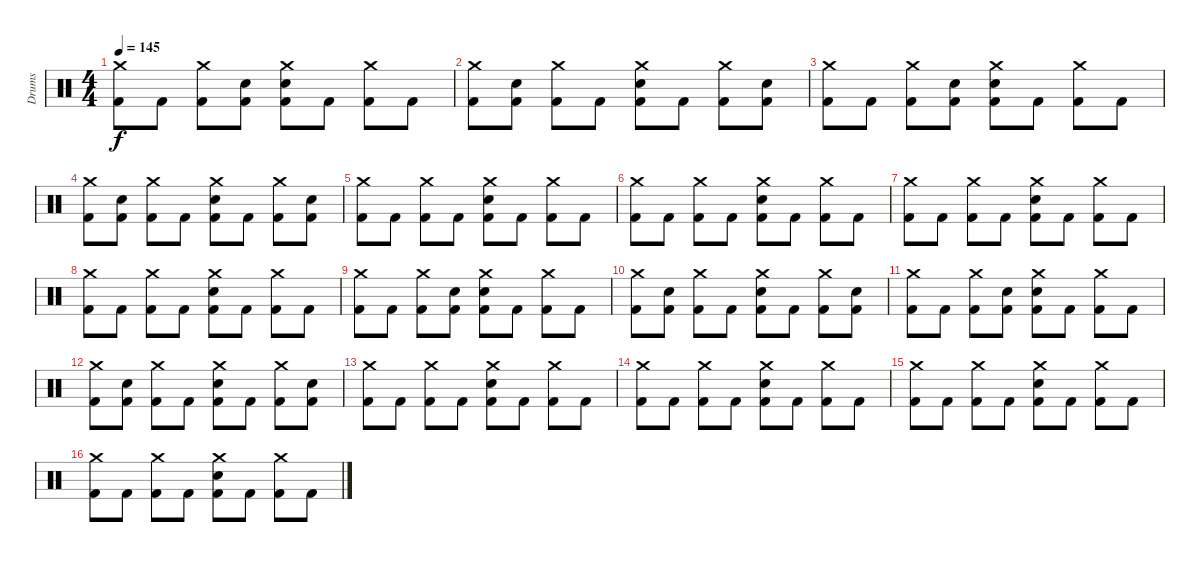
\track ("Drums" "Drums") {instrument percussion}
\staff {score}
\articulation defaults
\ts (4 4)
\tempo 145
\clef neutral
\ks c
("Crash medium (hit)" "Kick (hit) 2").8{dy f} "Kick (hit) 2".8 ("Crash medium (hit)" "Kick (hit) 2").8 ("Snare (hit) 2" "Kick (hit) 2").8 ("Crash medium (hit)" "Snare (hit) 2" "Kick (hit) 2").8 "Kick (hit) 2".8 ("Crash medium (hit)" "Kick (hit) 2").8 "Kick (hit) 2".8 |
("Crash medium (hit)" "Kick (hit) 2").8 ("Snare (hit) 2" "Kick (hit) 2").8 ("Crash medium (hit)" "Kick (hit) 2").8 "Kick (hit) 2".8 ("Crash medium (hit)" "Snare (hit) 2" "Kick (hit) 2").8 "Kick (hit) 2".8 ("Crash medium (hit)" "Kick (hit) 2").8 ("Snare (hit) 2" "Kick (hit) 2").8 |
("Crash medium (hit)" "Kick (hit) 2").8 "Kick (hit) 2".8 ("Crash medium (hit)" "Kick (hit) 2").8 ("Snare (hit) 2" "Kick (hit) 2").8 ("Crash medium (hit)" "Snare (hit) 2" "Kick (hit) 2").8 "Kick (hit) 2".8 ("Crash medium (hit)" "Kick (hit) 2").8 "Kick (hit) 2".8 |
("Crash medium (hit)" "Kick (hit) 2").8 ("Snare (hit) 2" "Kick (hit) 2").8 ("Crash medium (hit)" "Kick (hit) 2").8 "Kick (hit) 2".8 ("Crash medium (hit)" "Snare (hit) 2" "Kick (hit) 2").8 "Kick (hit) 2".8 ("Crash medium (hit)" "Kick (hit) 2").8 ("Snare (hit) 2" "Kick (hit) 2").8 |
("Crash medium (hit)" "Kick (hit) 2").8 "Kick (hit) 2".8 ("Crash medium (hit)" "Kick (hit) 2").8 "Kick (hit) 2".8 ("Crash medium (hit)" "Snare (hit) 2" "Kick (hit) 2").8 "Kick (hit) 2".8 ("Crash medium (hit)" "Kick (hit) 2").8 "Kick (hit) 2".8 |
("Crash medium (hit)" "Kick (hit) 2").8 "Kick (hit) 2".8 ("Crash medium (hit)" "Kick (hit) 2").8 "Kick (hit) 2".8 ("Crash medium (hit)" "Snare (hit) 2" "Kick (hit) 2").8 "Kick (hit) 2".8 ("Crash medium (hit)" "Kick (hit) 2").8 "Kick (hit) 2".8 |
("Crash medium (hit)" "Kick (hit) 2").8 "Kick (hit) 2".8 ("Crash medium (hit)" "Kick (hit) 2").8 "Kick (hit) 2".8 ("Crash medium (hit)" "Snare (hit) 2" "Kick (hit) 2").8 "Kick (hit) 2".8 ("Crash medium (hit)" "Kick (hit) 2").8 "Kick (hit) 2".8 |
("Crash medium (hit)" "Kick (hit) 2").8 "Kick (hit) 2".8 ("Crash medium (hit)" "Kick (hit) 2").8 "Kick (hit) 2".8 ("Crash medium (hit)" "Snare (hit) 2" "Kick (hit) 2").8 "Kick (hit) 2".8 ("Crash medium (hit)" "Kick (hit) 2").8 "Kick (hit) 2".8 |
("Crash medium (hit)" "Kick (hit) 2").8 "Kick (hit) 2".8 ("Crash medium (hit)" "Kick (hit) 2").8 ("Snare (hit) 2" "Kick (hit) 2").8 ("Crash medium (hit)" "Snare (hit) 2" "Kick (hit) 2").8 "Kick (hit) 2".8 ("Crash medium (hit)" "Kick (hit) 2").8 "Kick (hit) 2".8 |
("Crash medium (hit)" "Kick (hit) 2").8 ("Snare (hit) 2" "Kick (hit) 2").8 ("Crash medium (hit)" "Kick (hit) 2").8 "Kick (hit) 2".8 ("Crash medium (hit)" "Snare (hit) 2" "Kick (hit) 2").8 "Kick (hit) 2".8 ("Crash medium (hit)" "Kick (hit) 2").8 ("Snare (hit) 2" "Kick (hit) 2").8 |
("Crash medium (hit)" "Kick (hit) 2").8 "Kick (hit) 2".8 ("Crash medium (hit)" "Kick (hit) 2").8 ("Snare (hit) 2" "Kick (hit) 2").8 ("Crash medium (hit)" "Snare (hit) 2" "Kick (hit) 2").8 "Kick (hit) 2".8 ("Crash medium (hit)" "Kick (hit) 2").8 "Kick (hit) 2".8 |
("Crash medium (hit)" "Kick (hit) 2").8 ("Snare (hit) 2" "Kick (hit) 2").8 ("Crash medium (hit)" "Kick (hit) 2").8 "Kick (hit) 2".8 ("Crash medium (hit)" "Snare (hit) 2" "Kick (hit) 2").8 "Kick (hit) 2".8 ("Crash medium (hit)" "Kick (hit) 2").8 ("Snare (hit) 2" "Kick (hit) 2").8 |
("Crash medium (hit)" "Kick (hit) 2").8 "Kick (hit) 2".8 ("Crash medium (hit)" "Kick (hit) 2").8 "Kick (hit) 2".8 ("Crash medium (hit)" "Snare (hit) 2" "Kick (hit) 2").8 "Kick (hit) 2".8 ("Crash medium (hit)" "Kick (hit) 2").8 "Kick (hit) 2".8 |
("Crash medium (hit)" "Kick (hit) 2").8 "Kick (hit) 2".8 ("Crash medium (hit)" "Kick (hit) 2").8 "Kick (hit) 2".8 ("Crash medium (hit)" "Snare (hit) 2" "Kick (hit) 2").8 "Kick (hit) 2".8 ("Crash medium (hit)" "Kick (hit) 2").8 "Kick (hit) 2".8 |
("Crash medium (hit)" "Kick (hit) 2").8 "Kick (hit) 2".8 ("Crash medium (hit)" "Kick (hit) 2").8 "Kick (hit) 2".8 ("Crash medium (hit)" "Snare (hit) 2" "Kick (hit) 2").8 "Kick (hit) 2".8 ("Crash medium (hit)" "Kick (hit) 2").8 "Kick (hit) 2".8 |
("Crash medium (hit)" "Kick (hit) 2").8 "Kick (hit) 2".8 ("Crash medium (hit)" "Kick (hit) 2").8 "Kick (hit) 2".8 ("Crash medium (hit)" "Snare (hit) 2" "Kick (hit) 2").8 "Kick (hit) 2".8 ("Crash medium (hit)" "Kick (hit) 2").8 "Kick (hit) 2".8
